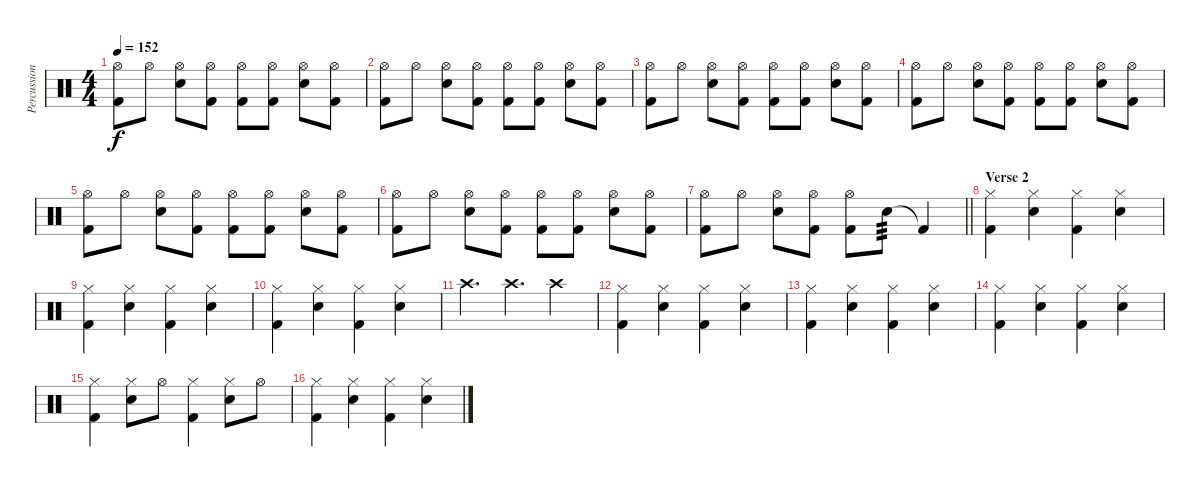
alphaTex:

\track ("Percussion" "Percussion") {instrument percussion}
\staff {score}
\articulation defaults
\ts (4 4)
\tempo 152
\clef neutral
\ks c
("Kick (hit) 2" "Hi-Hat (open)").8{dy f} "Hi-Hat (open)".8 ("Snare (hit) 2" "Hi-Hat (open)").8 ("Kick (hit) 2" "Hi-Hat (open)").8 ("Kick (hit) 2" "Hi-Hat (open)").8 ("Kick (hit) 2" "Hi-Hat (open)").8 ("Snare (hit) 2" "Hi-Hat (open)").8 ("Kick (hit) 2" "Hi-Hat (open)").8 |
("Kick (hit) 2" "Hi-Hat (open)").8 "Hi-Hat (open)".8 ("Snare (hit) 2" "Hi-Hat (open)").8 ("Kick (hit) 2" "Hi-Hat (open)").8 ("Kick (hit) 2" "Hi-Hat (open)").8 ("Kick (hit) 2" "Hi-Hat (open)").8 ("Snare (hit) 2" "Hi-Hat (open)").8 ("Kick (hit) 2" "Hi-Hat (open)").8 |
("Kick (hit) 2" "Hi-Hat (open)").8 "Hi-Hat (open)".8 ("Snare (hit) 2" "Hi-Hat (open)").8 ("Kick (hit) 2" "Hi-Hat (open)").8 ("Kick (hit) 2" "Hi-Hat (open)").8 ("Kick (hit) 2" "Hi-Hat (open)").8 ("Snare (hit) 2" "Hi-Hat (open)").8 ("Kick (hit) 2" "Hi-Hat (open)").8 |
("Kick (hit) 2" "Hi-Hat (open)").8 "Hi-Hat (open)".8 ("Snare (hit) 2" "Hi-Hat (open)").8 ("Kick (hit) 2" "Hi-Hat (open)").8 ("Kick (hit) 2" "Hi-Hat (open)").8 ("Kick (hit) 2" "Hi-Hat (open)").8 ("Snare (hit) 2" "Hi-Hat (open)").8 ("Kick (hit) 2" "Hi-Hat (open)").8 |
("Kick (hit) 2" "Hi-Hat (open)").8 "Hi-Hat (open)".8 ("Snare (hit) 2" "Hi-Hat (open)").8 ("Kick (hit) 2" "Hi-Hat (open)").8 ("Kick (hit) 2" "Hi-Hat (open)").8 ("Kick (hit) 2" "Hi-Hat (open)").8 ("Snare (hit) 2" "Hi-Hat (open)").8 ("Kick (hit) 2" "Hi-Hat (open)").8 |
("Kick (hit) 2" "Hi-Hat (open)").8 "Hi-Hat (open)".8 ("Snare (hit) 2" "Hi-Hat (open)").8 ("Kick (hit) 2" "Hi-Hat (open)").8 ("Kick (hit) 2" "Hi-Hat (open)").8 ("Kick (hit) 2" "Hi-Hat (open)").8 ("Snare (hit) 2" "Hi-Hat (open)").8 ("Kick (hit) 2" "Hi-Hat (open)").8 |
\barLineRight lightlight
("Kick (hit) 2" "Hi-Hat (open)").8 "Hi-Hat (open)".8 ("Snare (hit) 2" "Hi-Hat (open)").8 ("Kick (hit) 2" "Hi-Hat (open)").8 ("Kick (hit) 2" "Hi-Hat (open)").8 "Snare (hit) 2".8{tp 3} "Kick (hit) 2"{t}.4 |
\section ("" "Verse 2")
("Kick (hit) 2" "Hi-Hat (closed)").4 ("Snare (hit) 2" "Hi-Hat (closed)").4 ("Kick (hit) 2" "Hi-Hat (closed)").4 ("Snare (hit) 2" "Hi-Hat (closed)").4 |
("Kick (hit) 2" "Hi-Hat (closed)").4 ("Snare (hit) 2" "Hi-Hat (closed)").4 ("Kick (hit) 2" "Hi-Hat (closed)").4 ("Snare (hit) 2" "Hi-Hat (closed)").4 |
("Kick (hit) 2" "Hi-Hat (closed)").4 ("Snare (hit) 2" "Hi-Hat (closed)").4 ("Kick (hit) 2" "Hi-Hat (closed)").4 ("Snare (hit) 2" "Hi-Hat (closed)").4 |
"Crash high (hit)".4{d} "Crash high (hit)".4{d} "Crash high (hit)".4 |
("Kick (hit) 2" "Hi-Hat (closed)").4 ("Snare (hit) 2" "Hi-Hat (closed)").4 ("Kick (hit) 2" "Hi-Hat (closed)").4 ("Snare (hit) 2" "Hi-Hat (closed)").4 |
("Kick (hit) 2" "Hi-Hat (closed)").4 ("Snare (hit) 2" "Hi-Hat (closed)").4 ("Kick (hit) 2" "Hi-Hat (closed)").4 ("Snare (hit) 2" "Hi-Hat (closed)").4 |
("Kick (hit) 2" "Hi-Hat (closed)").4 ("Snare (hit) 2" "Hi-Hat (closed)").4 ("Kick (hit) 2" "Hi-Hat (closed)").4 ("Snare (hit) 2" "Hi-Hat (closed)").4 |
("Kick (hit) 2" "Hi-Hat (closed)").4 ("Snare (hit) 2" "Hi-Hat (closed)").8 "Hi-Hat (open)".8 ("Kick (hit) 2" "Hi-Hat (closed)").4 ("Snare (hit) 2" "Hi-Hat (closed)").8 "Hi-Hat (open)".8 |
("Kick (hit) 2" "Hi-Hat (closed)").4 ("Snare (hit) 2" "Hi-Hat (closed)").4 ("Kick (hit) 2" "Hi-Hat (closed)").4 ("Snare (hit) 2" "Hi-Hat (closed)").4
